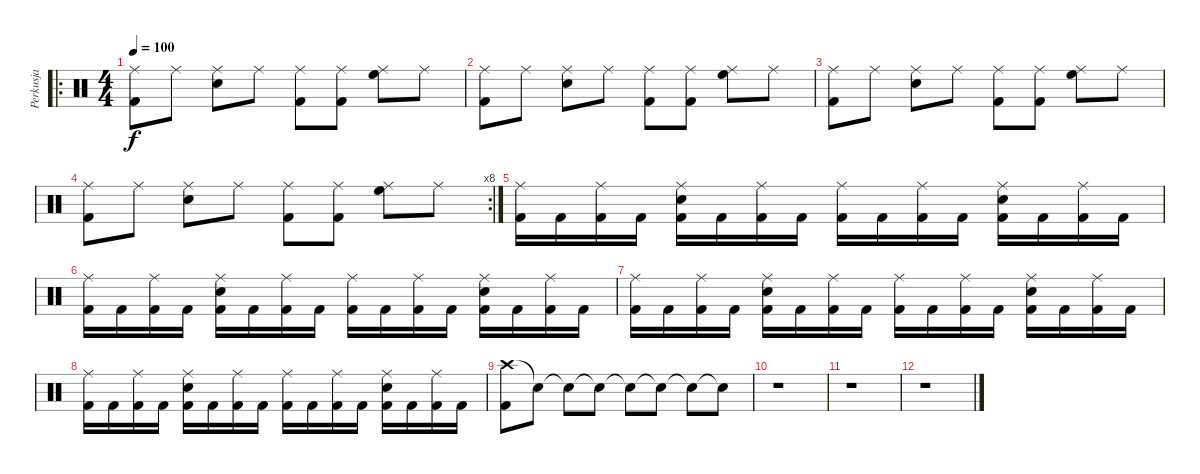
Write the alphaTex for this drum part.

\track ("Perkusja" "Perkusja") {instrument percussion}
\staff {score}
\articulation defaults
\ro
\ts (4 4)
\tempo 100
\clef neutral
\ks c
("Ride (middle)" "Kick (hit) 2").8{dy f} "Ride (middle)".8 ("Ride (middle)" "Electric Snare (hit)").8 "Ride (middle)".8 ("Ride (middle)" "Kick (hit) 2").8 ("Ride (middle)" "Kick (hit) 2").8 ("Ride (middle)" "High Floor Tom (hit)").8 "Ride (middle)".8 |
("Ride (middle)" "Kick (hit) 2").8 "Ride (middle)".8 ("Ride (middle)" "Electric Snare (hit)").8 "Ride (middle)".8 ("Ride (middle)" "Kick (hit) 2").8 ("Ride (middle)" "Kick (hit) 2").8 ("Ride (middle)" "High Floor Tom (hit)").8 "Ride (middle)".8 |
("Ride (middle)" "Kick (hit) 2").8 "Ride (middle)".8 ("Ride (middle)" "Electric Snare (hit)").8 "Ride (middle)".8 ("Ride (middle)" "Kick (hit) 2").8 ("Ride (middle)" "Kick (hit) 2").8 ("Ride (middle)" "High Floor Tom (hit)").8 "Ride (middle)".8 |
\rc 8
("Ride (middle)" "Kick (hit) 2").8 "Ride (middle)".8 ("Ride (middle)" "Electric Snare (hit)").8 "Ride (middle)".8 ("Ride (middle)" "Kick (hit) 2").8 ("Ride (middle)" "Kick (hit) 2").8 ("Ride (middle)" "High Floor Tom (hit)").8 "Ride (middle)".8 |
("Ride (middle)" "Kick (hit) 2").16 "Kick (hit) 2".16 ("Ride (middle)" "Kick (hit) 2").16 "Kick (hit) 2".16 ("Ride (middle)" "Electric Snare (hit)" "Kick (hit) 2").16 "Kick (hit) 2".16 ("Ride (middle)" "Kick (hit) 2").16 "Kick (hit) 2".16 ("Ride (middle)" "Kick (hit) 2").16 "Kick (hit) 2".16 ("Ride (middle)" "Kick (hit) 2").16 "Kick (hit) 2".16 ("Ride (middle)" "Electric Snare (hit)" "Kick (hit) 2").16 "Kick (hit) 2".16 ("Ride (middle)" "Kick (hit) 2").16 "Kick (hit) 2".16 |
("Ride (middle)" "Kick (hit) 2").16 "Kick (hit) 2".16 ("Ride (middle)" "Kick (hit) 2").16 "Kick (hit) 2".16 ("Ride (middle)" "Electric Snare (hit)" "Kick (hit) 2").16 "Kick (hit) 2".16 ("Ride (middle)" "Kick (hit) 2").16 "Kick (hit) 2".16 ("Ride (middle)" "Kick (hit) 2").16 "Kick (hit) 2".16 ("Ride (middle)" "Kick (hit) 2").16 "Kick (hit) 2".16 ("Ride (middle)" "Electric Snare (hit)" "Kick (hit) 2").16 "Kick (hit) 2".16 ("Ride (middle)" "Kick (hit) 2").16 "Kick (hit) 2".16 |
("Ride (middle)" "Kick (hit) 2").16 "Kick (hit) 2".16 ("Ride (middle)" "Kick (hit) 2").16 "Kick (hit) 2".16 ("Ride (middle)" "Electric Snare (hit)" "Kick (hit) 2").16 "Kick (hit) 2".16 ("Ride (middle)" "Kick (hit) 2").16 "Kick (hit) 2".16 ("Ride (middle)" "Kick (hit) 2").16 "Kick (hit) 2".16 ("Ride (middle)" "Kick (hit) 2").16 "Kick (hit) 2".16 ("Ride (middle)" "Electric Snare (hit)" "Kick (hit) 2").16 "Kick (hit) 2".16 ("Ride (middle)" "Kick (hit) 2").16 "Kick (hit) 2".16 |
("Ride (middle)" "Kick (hit) 2").16 "Kick (hit) 2".16 ("Ride (middle)" "Kick (hit) 2").16 "Kick (hit) 2".16 ("Ride (middle)" "Electric Snare (hit)" "Kick (hit) 2").16 "Kick (hit) 2".16 ("Ride (middle)" "Kick (hit) 2").16 "Kick (hit) 2".16 ("Ride (middle)" "Kick (hit) 2").16 "Kick (hit) 2".16 ("Ride (middle)" "Kick (hit) 2").16 "Kick (hit) 2".16 ("Ride (middle)" "Electric Snare (hit)" "Kick (hit) 2").16 "Kick (hit) 2".16 ("Ride (middle)" "Kick (hit) 2").16 "Kick (hit) 2".16 |
("Crash high (hit)" "Kick (hit) 2").8 "Snare (hit)"{t}.8 "Snare (hit)"{t}.8 "Snare (hit)"{t}.8 "Snare (hit)"{t}.8 "Snare (hit)"{t}.8 "Snare (hit)"{t}.8 "Snare (hit)"{t}.8 |
r.1 |
r.1 |
r.1
